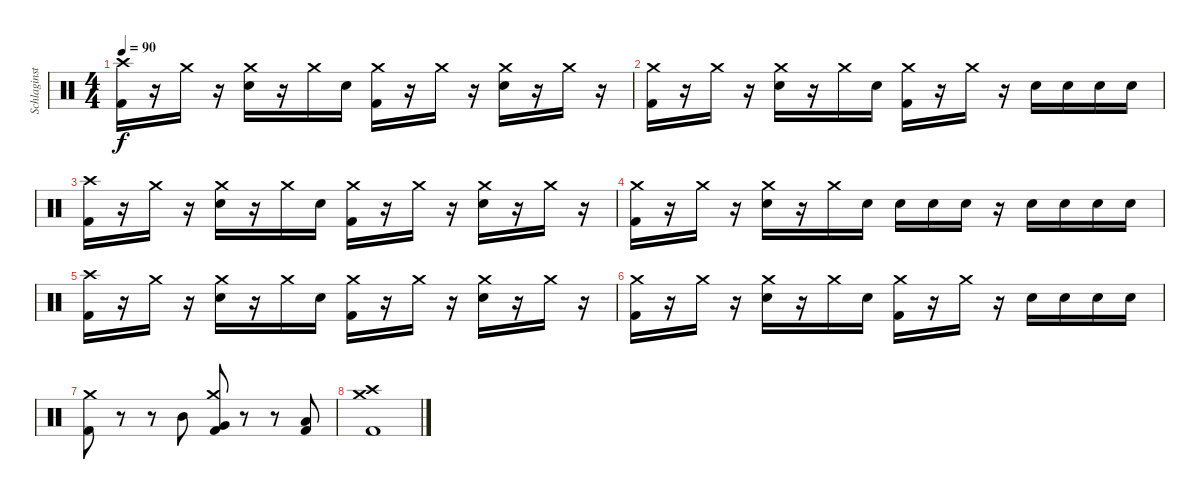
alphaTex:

\track ("Schlaginstrumente - Auswahl" "Schlaginst") {instrument percussion}
\staff {score}
\articulation defaults
\ts (4 4)
\tempo 90
\clef neutral
\ks c
("Crash high (hit)" "Kick (hit) 2").16{dy f} r.16 "Crash medium (hit)".16 r.16 ("Crash medium (hit)" "Snare (hit) 2").16 r.16 "Crash medium (hit)".16 "Snare (hit) 2".16 ("Crash medium (hit)" "Kick (hit) 2").16 r.16 "Crash medium (hit)".16 r.16 ("Crash medium (hit)" "Snare (hit) 2").16 r.16 "Crash medium (hit)".16 r.16 |
("Crash medium (hit)" "Kick (hit) 2").16 r.16 "Crash medium (hit)".16 r.16 ("Crash medium (hit)" "Snare (hit) 2").16 r.16 "Crash medium (hit)".16 "Snare (hit) 2".16 ("Crash medium (hit)" "Kick (hit) 2").16 r.16 "Crash medium (hit)".16 r.16 "Snare (hit) 2".16 "Snare (hit) 2".16 "Snare (hit) 2".16 "Snare (hit) 2".16 |
("Crash high (hit)" "Kick (hit) 2").16 r.16 "Crash medium (hit)".16 r.16 ("Crash medium (hit)" "Snare (hit) 2").16 r.16 "Crash medium (hit)".16 "Snare (hit) 2".16 ("Crash medium (hit)" "Kick (hit) 2").16 r.16 "Crash medium (hit)".16 r.16 ("Crash medium (hit)" "Snare (hit) 2").16 r.16 "Crash medium (hit)".16 r.16 |
("Crash medium (hit)" "Kick (hit) 2").16 r.16 "Crash medium (hit)".16 r.16 ("Crash medium (hit)" "Snare (hit) 2").16 r.16 "Crash medium (hit)".16 "Snare (hit) 2".16 "Snare (hit) 2".16 "Snare (hit) 2".16 "Snare (hit) 2".16 r.16 "Snare (hit) 2".16 "Snare (hit) 2".16 "Snare (hit) 2".16 "Snare (hit) 2".16 |
("Crash high (hit)" "Kick (hit) 2").16 r.16 "Crash medium (hit)".16 r.16 ("Crash medium (hit)" "Snare (hit) 2").16 r.16 "Crash medium (hit)".16 "Snare (hit) 2".16 ("Crash medium (hit)" "Kick (hit) 2").16 r.16 "Crash medium (hit)".16 r.16 ("Crash medium (hit)" "Snare (hit) 2").16 r.16 "Crash medium (hit)".16 r.16 |
("Crash medium (hit)" "Kick (hit) 2").16 r.16 "Crash medium (hit)".16 r.16 ("Crash medium (hit)" "Snare (hit) 2").16 r.16 "Crash medium (hit)".16 "Snare (hit) 2".16 ("Crash medium (hit)" "Kick (hit) 2").16 r.16 "Crash medium (hit)".16 r.16 "Snare (hit) 2".16 "Snare (hit) 2".16 "Snare (hit) 2".16 "Snare (hit) 2".16 |
("Crash medium (hit)" "Kick (hit) 2").8 r.8 r.8 "Mid Tom (hit)".8 ("Crash medium (hit)" "Very Low Tom (hit)" "Kick (hit) 2").8 r.8 r.8 ("Low Floor Tom (hit)" "Kick (hit) 2").8 |
("Crash high (hit)" "Crash medium (hit)" "Kick (hit) 2").1
